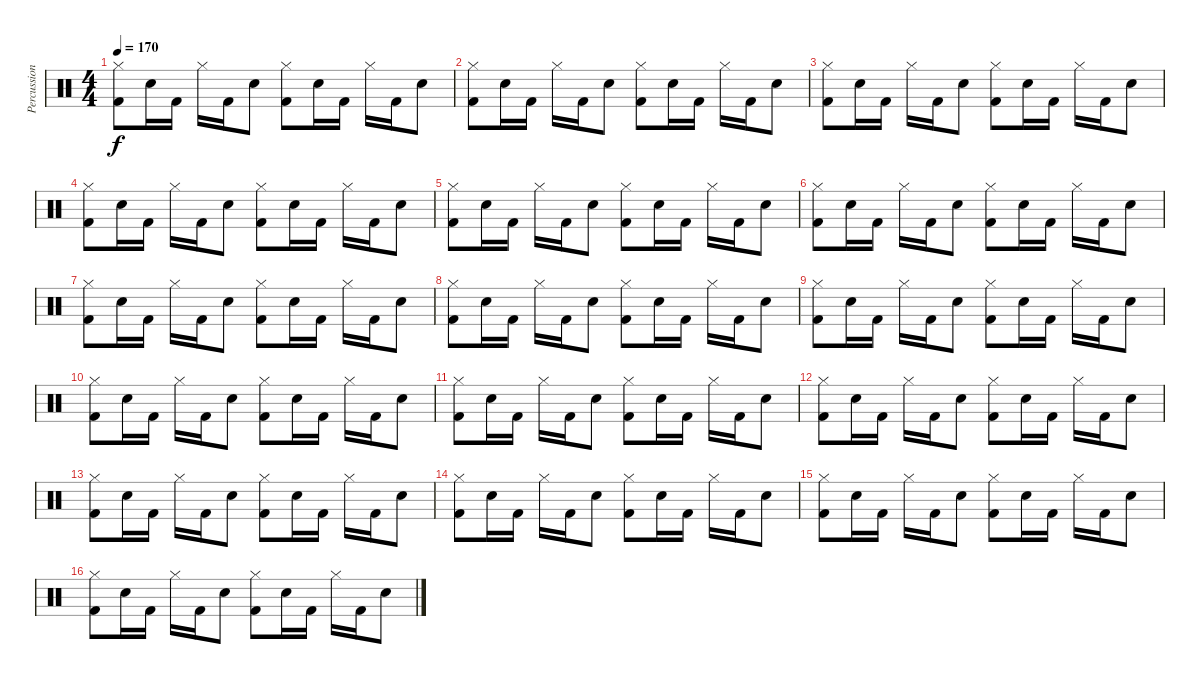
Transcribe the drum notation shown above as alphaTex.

\track ("Percussions" "Percussion") {instrument percussion}
\staff {score}
\articulation defaults
\ts (4 4)
\tempo 170
\clef neutral
\ks c
("Hi-Hat (closed)" "Kick (hit) 2").8{dy f} "Snare (hit) 2".16 "Kick (hit) 2".16 "Hi-Hat (closed)".16 "Kick (hit) 2".16 "Snare (hit) 2".8 ("Hi-Hat (closed)" "Kick (hit) 2").8 "Snare (hit) 2".16 "Kick (hit) 2".16 "Hi-Hat (closed)".16 "Kick (hit) 2".16 "Snare (hit) 2".8 |
("Hi-Hat (closed)" "Kick (hit) 2").8 "Snare (hit) 2".16 "Kick (hit) 2".16 "Hi-Hat (closed)".16 "Kick (hit) 2".16 "Snare (hit) 2".8 ("Hi-Hat (closed)" "Kick (hit) 2").8 "Snare (hit) 2".16 "Kick (hit) 2".16 "Hi-Hat (closed)".16 "Kick (hit) 2".16 "Snare (hit) 2".8 |
("Hi-Hat (closed)" "Kick (hit) 2").8 "Snare (hit) 2".16 "Kick (hit) 2".16 "Hi-Hat (closed)".16 "Kick (hit) 2".16 "Snare (hit) 2".8 ("Hi-Hat (closed)" "Kick (hit) 2").8 "Snare (hit) 2".16 "Kick (hit) 2".16 "Hi-Hat (closed)".16 "Kick (hit) 2".16 "Snare (hit) 2".8 |
("Hi-Hat (closed)" "Kick (hit) 2").8 "Snare (hit) 2".16 "Kick (hit) 2".16 "Hi-Hat (closed)".16 "Kick (hit) 2".16 "Snare (hit) 2".8 ("Hi-Hat (closed)" "Kick (hit) 2").8 "Snare (hit) 2".16 "Kick (hit) 2".16 "Hi-Hat (closed)".16 "Kick (hit) 2".16 "Snare (hit) 2".8 |
("Hi-Hat (closed)" "Kick (hit) 2").8 "Snare (hit) 2".16 "Kick (hit) 2".16 "Hi-Hat (closed)".16 "Kick (hit) 2".16 "Snare (hit) 2".8 ("Hi-Hat (closed)" "Kick (hit) 2").8 "Snare (hit) 2".16 "Kick (hit) 2".16 "Hi-Hat (closed)".16 "Kick (hit) 2".16 "Snare (hit) 2".8 |
("Hi-Hat (closed)" "Kick (hit) 2").8 "Snare (hit) 2".16 "Kick (hit) 2".16 "Hi-Hat (closed)".16 "Kick (hit) 2".16 "Snare (hit) 2".8 ("Hi-Hat (closed)" "Kick (hit) 2").8 "Snare (hit) 2".16 "Kick (hit) 2".16 "Hi-Hat (closed)".16 "Kick (hit) 2".16 "Snare (hit) 2".8 |
("Hi-Hat (closed)" "Kick (hit) 2").8 "Snare (hit) 2".16 "Kick (hit) 2".16 "Hi-Hat (closed)".16 "Kick (hit) 2".16 "Snare (hit) 2".8 ("Hi-Hat (closed)" "Kick (hit) 2").8 "Snare (hit) 2".16 "Kick (hit) 2".16 "Hi-Hat (closed)".16 "Kick (hit) 2".16 "Snare (hit) 2".8 |
("Hi-Hat (closed)" "Kick (hit) 2").8 "Snare (hit) 2".16 "Kick (hit) 2".16 "Hi-Hat (closed)".16 "Kick (hit) 2".16 "Snare (hit) 2".8 ("Hi-Hat (closed)" "Kick (hit) 2").8 "Snare (hit) 2".16 "Kick (hit) 2".16 "Hi-Hat (closed)".16 "Kick (hit) 2".16 "Snare (hit) 2".8 |
("Hi-Hat (closed)" "Kick (hit) 2").8 "Snare (hit) 2".16 "Kick (hit) 2".16 "Hi-Hat (closed)".16 "Kick (hit) 2".16 "Snare (hit) 2".8 ("Hi-Hat (closed)" "Kick (hit) 2").8 "Snare (hit) 2".16 "Kick (hit) 2".16 "Hi-Hat (closed)".16 "Kick (hit) 2".16 "Snare (hit) 2".8 |
("Hi-Hat (closed)" "Kick (hit) 2").8 "Snare (hit) 2".16 "Kick (hit) 2".16 "Hi-Hat (closed)".16 "Kick (hit) 2".16 "Snare (hit) 2".8 ("Hi-Hat (closed)" "Kick (hit) 2").8 "Snare (hit) 2".16 "Kick (hit) 2".16 "Hi-Hat (closed)".16 "Kick (hit) 2".16 "Snare (hit) 2".8 |
("Hi-Hat (closed)" "Kick (hit) 2").8 "Snare (hit) 2".16 "Kick (hit) 2".16 "Hi-Hat (closed)".16 "Kick (hit) 2".16 "Snare (hit) 2".8 ("Hi-Hat (closed)" "Kick (hit) 2").8 "Snare (hit) 2".16 "Kick (hit) 2".16 "Hi-Hat (closed)".16 "Kick (hit) 2".16 "Snare (hit) 2".8 |
("Hi-Hat (closed)" "Kick (hit) 2").8 "Snare (hit) 2".16 "Kick (hit) 2".16 "Hi-Hat (closed)".16 "Kick (hit) 2".16 "Snare (hit) 2".8 ("Hi-Hat (closed)" "Kick (hit) 2").8 "Snare (hit) 2".16 "Kick (hit) 2".16 "Hi-Hat (closed)".16 "Kick (hit) 2".16 "Snare (hit) 2".8 |
("Hi-Hat (closed)" "Kick (hit) 2").8 "Snare (hit) 2".16 "Kick (hit) 2".16 "Hi-Hat (closed)".16 "Kick (hit) 2".16 "Snare (hit) 2".8 ("Hi-Hat (closed)" "Kick (hit) 2").8 "Snare (hit) 2".16 "Kick (hit) 2".16 "Hi-Hat (closed)".16 "Kick (hit) 2".16 "Snare (hit) 2".8 |
("Hi-Hat (closed)" "Kick (hit) 2").8 "Snare (hit) 2".16 "Kick (hit) 2".16 "Hi-Hat (closed)".16 "Kick (hit) 2".16 "Snare (hit) 2".8 ("Hi-Hat (closed)" "Kick (hit) 2").8 "Snare (hit) 2".16 "Kick (hit) 2".16 "Hi-Hat (closed)".16 "Kick (hit) 2".16 "Snare (hit) 2".8 |
("Hi-Hat (closed)" "Kick (hit) 2").8 "Snare (hit) 2".16 "Kick (hit) 2".16 "Hi-Hat (closed)".16 "Kick (hit) 2".16 "Snare (hit) 2".8 ("Hi-Hat (closed)" "Kick (hit) 2").8 "Snare (hit) 2".16 "Kick (hit) 2".16 "Hi-Hat (closed)".16 "Kick (hit) 2".16 "Snare (hit) 2".8 |
("Hi-Hat (closed)" "Kick (hit) 2").8 "Snare (hit) 2".16 "Kick (hit) 2".16 "Hi-Hat (closed)".16 "Kick (hit) 2".16 "Snare (hit) 2".8 ("Hi-Hat (closed)" "Kick (hit) 2").8 "Snare (hit) 2".16 "Kick (hit) 2".16 "Hi-Hat (closed)".16 "Kick (hit) 2".16 "Snare (hit) 2".8
